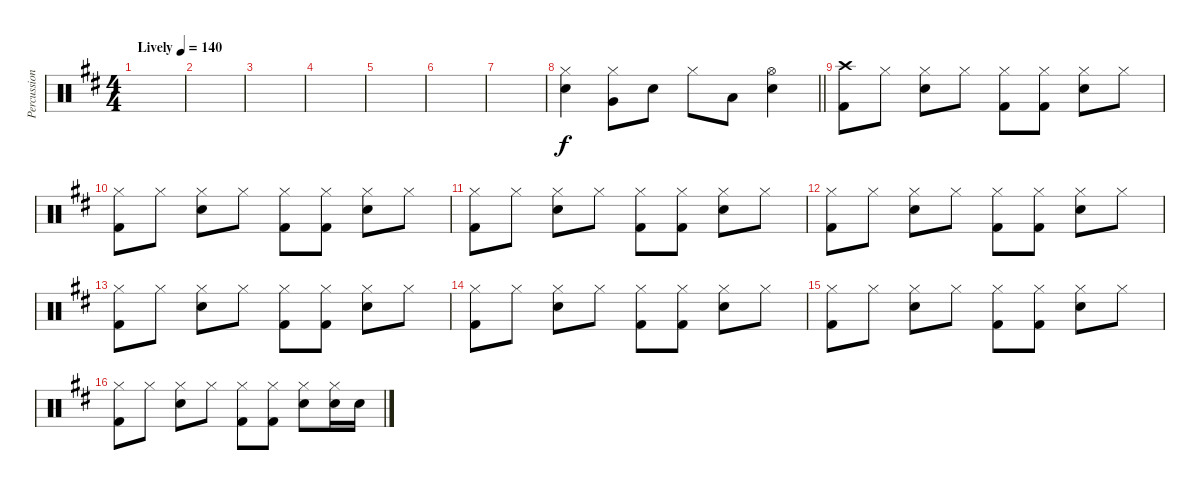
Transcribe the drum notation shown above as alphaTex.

\track ("Percussion" "Percussion") {instrument percussion}
\staff {score}
\articulation defaults
\ts (4 4)
\tempo (140 "Lively")
\clef neutral
\ks bminor
|
|
|
|
|
|
|
\barLineRight lightlight
("Hi-Hat (closed)" "Snare (hit) 2").4 ("Hi-Hat (closed)" "Very Low Tom (hit)").8 "Snare (hit) 2".8 "Hi-Hat (closed)".8 "Low Floor Tom (hit)".8 ("Hi-Hat (open)" "Snare (hit) 2").4 |
("Crash high (hit)" "Kick (hit) 2").8 "Hi-Hat (closed)".8 ("Hi-Hat (closed)" "Snare (hit) 2").8 "Hi-Hat (closed)".8 ("Hi-Hat (closed)" "Kick (hit) 2").8 ("Hi-Hat (closed)" "Kick (hit) 2").8 ("Hi-Hat (closed)" "Snare (hit) 2").8 "Hi-Hat (closed)".8 |
("Hi-Hat (closed)" "Kick (hit) 2").8 "Hi-Hat (closed)".8 ("Hi-Hat (closed)" "Snare (hit) 2").8 "Hi-Hat (closed)".8 ("Hi-Hat (closed)" "Kick (hit) 2").8 ("Hi-Hat (closed)" "Kick (hit) 2").8 ("Hi-Hat (closed)" "Snare (hit) 2").8 "Hi-Hat (closed)".8 |
("Hi-Hat (closed)" "Kick (hit) 2").8 "Hi-Hat (closed)".8 ("Hi-Hat (closed)" "Snare (hit) 2").8 "Hi-Hat (closed)".8 ("Hi-Hat (closed)" "Kick (hit) 2").8 ("Hi-Hat (closed)" "Kick (hit) 2").8 ("Hi-Hat (closed)" "Snare (hit) 2").8 "Hi-Hat (closed)".8 |
("Hi-Hat (closed)" "Kick (hit) 2").8 "Hi-Hat (closed)".8 ("Hi-Hat (closed)" "Snare (hit) 2").8 "Hi-Hat (closed)".8 ("Hi-Hat (closed)" "Kick (hit) 2").8 ("Hi-Hat (closed)" "Kick (hit) 2").8 ("Hi-Hat (closed)" "Snare (hit) 2").8 "Hi-Hat (closed)".8 |
("Hi-Hat (closed)" "Kick (hit) 2").8 "Hi-Hat (closed)".8 ("Hi-Hat (closed)" "Snare (hit) 2").8 "Hi-Hat (closed)".8 ("Hi-Hat (closed)" "Kick (hit) 2").8 ("Hi-Hat (closed)" "Kick (hit) 2").8 ("Hi-Hat (closed)" "Snare (hit) 2").8 "Hi-Hat (closed)".8 |
("Hi-Hat (closed)" "Kick (hit) 2").8 "Hi-Hat (closed)".8 ("Hi-Hat (closed)" "Snare (hit) 2").8 "Hi-Hat (closed)".8 ("Hi-Hat (closed)" "Kick (hit) 2").8 ("Hi-Hat (closed)" "Kick (hit) 2").8 ("Hi-Hat (closed)" "Snare (hit) 2").8 "Hi-Hat (closed)".8 |
("Hi-Hat (closed)" "Kick (hit) 2").8 "Hi-Hat (closed)".8 ("Hi-Hat (closed)" "Snare (hit) 2").8 "Hi-Hat (closed)".8 ("Hi-Hat (closed)" "Kick (hit) 2").8 ("Hi-Hat (closed)" "Kick (hit) 2").8 ("Hi-Hat (closed)" "Snare (hit) 2").8 "Hi-Hat (closed)".8 |
("Hi-Hat (closed)" "Kick (hit) 2").8 "Hi-Hat (closed)".8 ("Hi-Hat (closed)" "Snare (hit) 2").8 "Hi-Hat (closed)".8 ("Hi-Hat (closed)" "Kick (hit) 2").8 ("Hi-Hat (closed)" "Kick (hit) 2").8 ("Hi-Hat (closed)" "Snare (hit) 2").8 ("Hi-Hat (closed)" "Snare (hit) 2").16 "Snare (hit) 2".16
